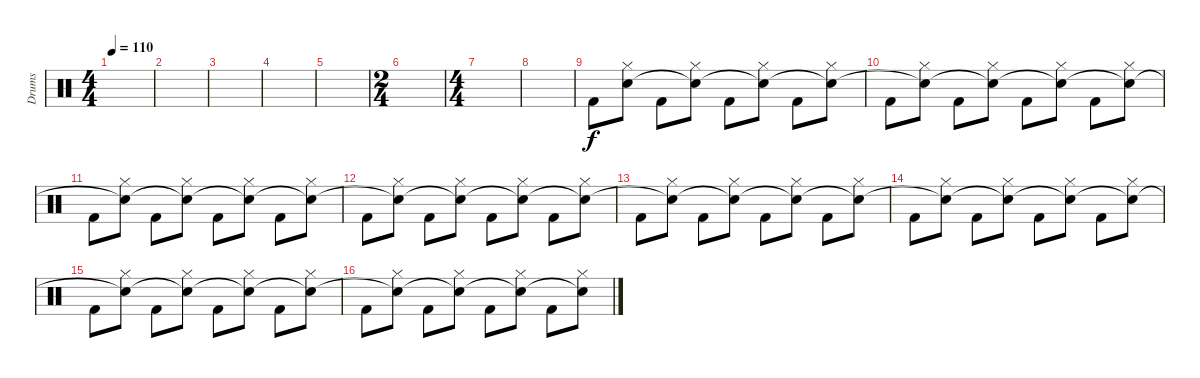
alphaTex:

\track ("Drums" "Drums") {instrument percussion}
\staff {score}
\articulation defaults
\ts (4 4)
\tempo 110
\clef neutral
\ks c
|
|
|
|
|
\ts (2 4)
|
\ts (4 4)
|
|
"Kick (hit) 2".8 ("Hi-Hat (closed)" "Snare (hit)").8 "Kick (hit) 2".8 ("Hi-Hat (closed)" "Snare (hit)"{t}).8 "Kick (hit) 2".8 ("Hi-Hat (closed)" "Snare (hit)"{t}).8 "Kick (hit) 2".8 ("Hi-Hat (closed)" "Snare (hit)"{t}).8 |
"Kick (hit) 2".8 ("Hi-Hat (closed)" "Snare (hit)"{t}).8 "Kick (hit) 2".8 ("Hi-Hat (closed)" "Snare (hit)"{t}).8 "Kick (hit) 2".8 ("Hi-Hat (closed)" "Snare (hit)"{t}).8 "Kick (hit) 2".8 ("Hi-Hat (closed)" "Snare (hit)"{t}).8 |
"Kick (hit) 2".8 ("Hi-Hat (closed)" "Snare (hit)"{t}).8 "Kick (hit) 2".8 ("Hi-Hat (closed)" "Snare (hit)"{t}).8 "Kick (hit) 2".8 ("Hi-Hat (closed)" "Snare (hit)"{t}).8 "Kick (hit) 2".8 ("Hi-Hat (closed)" "Snare (hit)"{t}).8 |
"Kick (hit) 2".8 ("Hi-Hat (closed)" "Snare (hit)"{t}).8 "Kick (hit) 2".8 ("Hi-Hat (closed)" "Snare (hit)"{t}).8 "Kick (hit) 2".8 ("Hi-Hat (closed)" "Snare (hit)"{t}).8 "Kick (hit) 2".8 ("Hi-Hat (closed)" "Snare (hit)"{t}).8 |
"Kick (hit) 2".8 ("Hi-Hat (closed)" "Snare (hit)"{t}).8 "Kick (hit) 2".8 ("Hi-Hat (closed)" "Snare (hit)"{t}).8 "Kick (hit) 2".8 ("Hi-Hat (closed)" "Snare (hit)"{t}).8 "Kick (hit) 2".8 ("Hi-Hat (closed)" "Snare (hit)"{t}).8 |
"Kick (hit) 2".8 ("Hi-Hat (closed)" "Snare (hit)"{t}).8 "Kick (hit) 2".8 ("Hi-Hat (closed)" "Snare (hit)"{t}).8 "Kick (hit) 2".8 ("Hi-Hat (closed)" "Snare (hit)"{t}).8 "Kick (hit) 2".8 ("Hi-Hat (closed)" "Snare (hit)"{t}).8 |
"Kick (hit) 2".8 ("Hi-Hat (closed)" "Snare (hit)"{t}).8 "Kick (hit) 2".8 ("Hi-Hat (closed)" "Snare (hit)"{t}).8 "Kick (hit) 2".8 ("Hi-Hat (closed)" "Snare (hit)"{t}).8 "Kick (hit) 2".8 ("Hi-Hat (closed)" "Snare (hit)"{t}).8 |
"Kick (hit) 2".8 ("Hi-Hat (closed)" "Snare (hit)"{t}).8 "Kick (hit) 2".8 ("Hi-Hat (closed)" "Snare (hit)"{t}).8 "Kick (hit) 2".8 ("Hi-Hat (closed)" "Snare (hit)"{t}).8 "Kick (hit) 2".8 ("Hi-Hat (closed)" "Snare (hit)"{t}).8
